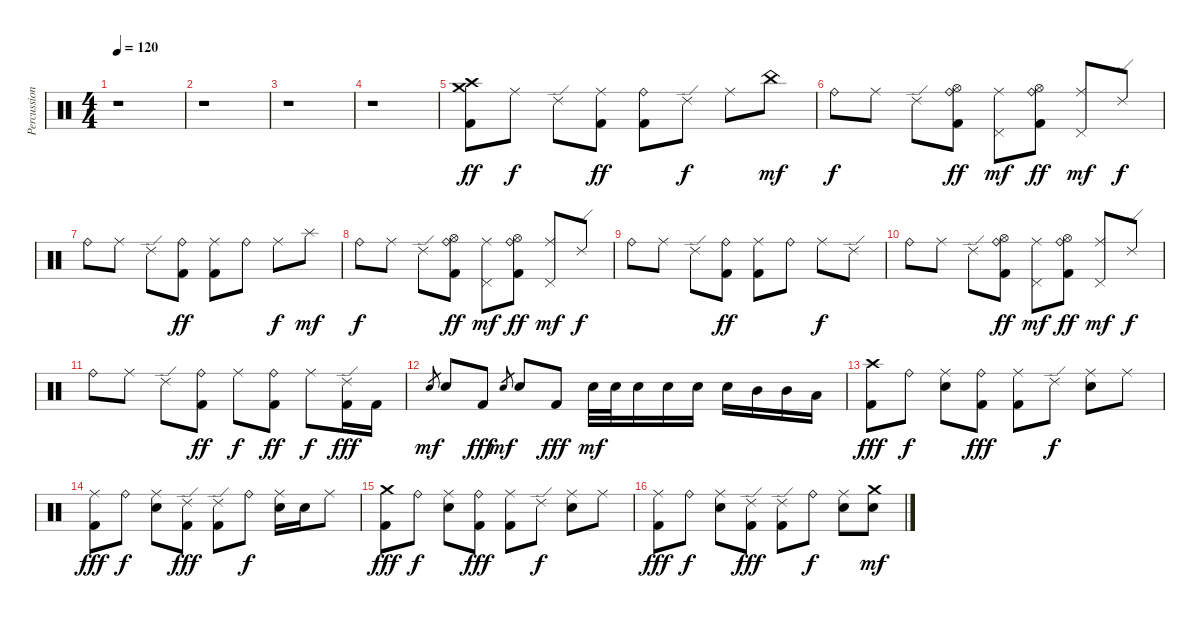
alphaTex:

\track ("Percussion" "Percussion") {instrument percussion}
\staff {score}
\articulation defaults
\ts (4 4)
\tempo 120
\clef neutral
\ks c
r.1{dy mf} |
r.1 |
r.1 |
r.1 |
("Crash medium (hit)" "Crash high (hit)" "Kick (hit) 2").8{dy ff} "Ride (middle)".8{dy f} "Ride (edge) 2".8 ("Ride (middle)" "Kick (hit) 2").8{dy ff} ("Ride (bell)" "Kick (hit) 2").8 "Ride (edge) 2".8{dy f} "Ride (middle)".8 "China (hit)".8{dy mf} |
"Ride (bell)".8{dy f} "Ride (middle)".8 "Ride (edge) 2".8 ("Ride (bell)" "Hi-Hat (open)" "Kick (hit) 2").8{dy ff} ("Ride (middle)" "Pedal Hi-Hat (hit)").8{dy mf} ("Ride (bell)" "Hi-Hat (open)" "Kick (hit) 2").8{dy ff} ("Ride (middle)" "Pedal Hi-Hat (hit)").8{dy mf} "Ride (edge) 2".8{dy f} |
"Ride (bell)".8 "Ride (middle)".8 "Ride (edge) 2".8 ("Ride (bell)" "Kick (hit) 2").8{dy ff} ("Ride (middle)" "Kick (hit) 2").8 "Ride (bell)".8 "Ride (middle)".8{dy f} "Splash (hit)".8{dy mf} |
"Ride (bell)".8{dy f} "Ride (middle)".8 "Ride (edge) 2".8 ("Ride (bell)" "Hi-Hat (open)" "Kick (hit) 2").8{dy ff} ("Ride (middle)" "Pedal Hi-Hat (hit)").8{dy mf} ("Ride (bell)" "Hi-Hat (open)" "Kick (hit) 2").8{dy ff} ("Ride (middle)" "Pedal Hi-Hat (hit)").8{dy mf} "Ride (edge) 2".8{dy f} |
"Ride (bell)".8 "Ride (middle)".8 "Ride (edge) 2".8 ("Ride (bell)" "Kick (hit) 2").8{dy ff} ("Ride (middle)" "Kick (hit) 2").8 "Ride (bell)".8 "Ride (middle)".8{dy f} "Ride (edge) 2".8 |
"Ride (bell)".8 "Ride (middle)".8 "Ride (edge) 2".8 ("Ride (bell)" "Hi-Hat (open)" "Kick (hit) 2").8{dy ff} ("Ride (middle)" "Pedal Hi-Hat (hit)").8{dy mf} ("Ride (bell)" "Hi-Hat (open)" "Kick (hit) 2").8{dy ff} ("Ride (middle)" "Pedal Hi-Hat (hit)").8{dy mf} "Ride (edge) 2".8{dy f} |
"Ride (bell)".8 "Ride (middle)".8 "Ride (edge) 2".8 ("Ride (bell)" "Kick (hit) 2").8{dy ff} "Ride (middle)".8{dy f} ("Ride (bell)" "Kick (hit) 2").8{dy ff} "Ride (middle)".8{dy f} ("Ride (edge) 2" "Kick (hit) 2").16{dy fff} "Kick (hit) 2".16 |
"Electric Snare (hit)".8{gr dy mf} "Electric Snare (hit)".8 "Kick (hit) 2".8{dy fff} "Electric Snare (hit)".8{gr dy mf} "Electric Snare (hit)".8 "Kick (hit) 2".8{dy fff} "Electric Snare (hit)".32{dy mf} "Electric Snare (hit)".32 "Electric Snare (hit)".16 "Electric Snare (hit)".16 "Electric Snare (hit)".16 "Electric Snare (hit)".16 "Mid Tom (hit)".16 "Mid Tom (hit)".16 "Low Tom (hit)".16 |
("Crash high (hit)" "Kick (hit) 2").8{dy fff} "Ride (bell)".8{dy f} ("Ride (middle)" "Electric Snare (hit)").8 ("Ride (bell)" "Kick (hit) 2").8{dy fff} ("Ride (middle)" "Kick (hit) 2").8 "Ride (edge) 2".8{dy f} ("Ride (middle)" "Electric Snare (hit)").8 "Ride (middle)".8 |
("Ride (middle)" "Kick (hit) 2").8{dy fff} "Ride (bell)".8{dy f} ("Ride (middle)" "Electric Snare (hit)").8 ("Ride (edge) 2" "Kick (hit) 2").8{dy fff} ("Ride (edge) 2" "Kick (hit) 2").8 "Ride (bell)".8{dy f} ("Ride (middle)" "Electric Snare (hit)").16 "Electric Snare (hit)".16 "Ride (middle)".8 |
("Crash medium (hit)" "Kick (hit) 2").8{dy fff} "Ride (bell)".8{dy f} ("Ride (middle)" "Electric Snare (hit)").8 ("Ride (bell)" "Kick (hit) 2").8{dy fff} ("Ride (middle)" "Kick (hit) 2").8 "Ride (edge) 2".8{dy f} ("Ride (middle)" "Electric Snare (hit)").8 "Ride (middle)".8 |
("Ride (middle)" "Kick (hit) 2").8{dy fff} "Ride (bell)".8{dy f} ("Ride (middle)" "Electric Snare (hit)").8 ("Ride (edge) 2" "Kick (hit) 2").8{dy fff} ("Ride (edge) 2" "Kick (hit) 2").8 "Ride (bell)".8{dy f} ("Ride (middle)" "Electric Snare (hit)").8 ("Crash medium (hit)" "Electric Snare (hit)").8{dy mf}
